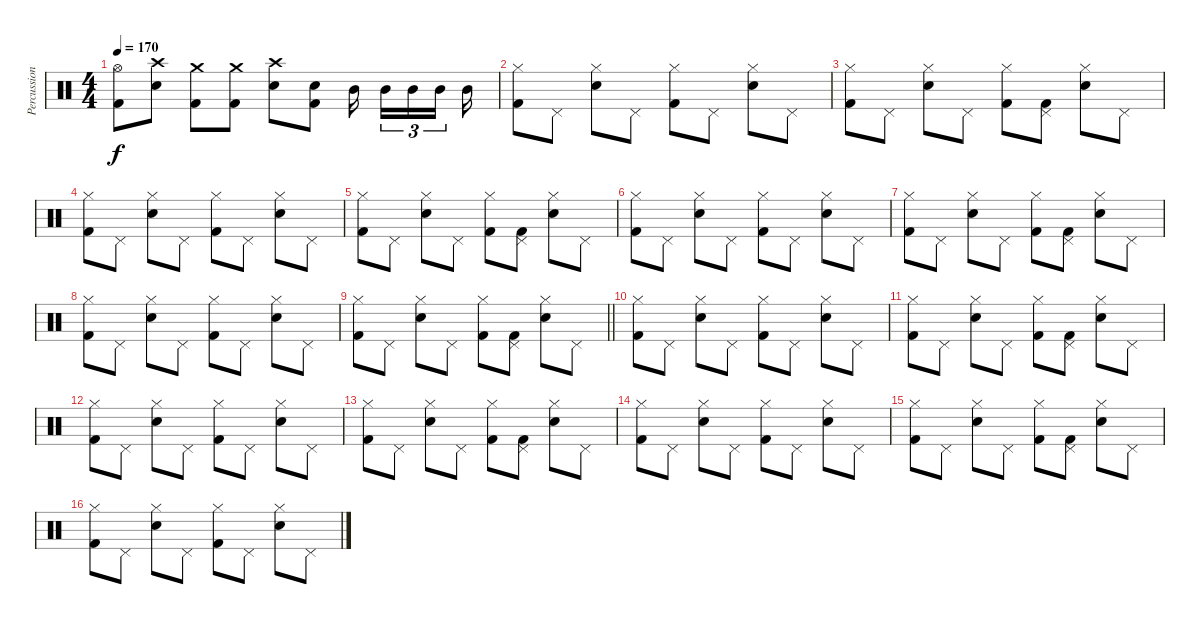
\track ("Percussion" "Percussion") {instrument percussion}
\staff {score}
\articulation defaults
\ts (4 4)
\tempo 170
\clef neutral
\ks c
("Hi-Hat (open)" "Kick (hit) 2").8{dy f} ("Crash high (hit)" "Snare (hit) 2").8 ("Crash medium (hit)" "Kick (hit) 2").8 ("Crash medium (hit)" "Kick (hit) 2").8 ("Crash high (hit)" "Snare (hit) 2").8 ("Snare (hit) 2" "Kick (hit) 2").8 "Mid Tom (hit)".16{beam splitsecondary} "Mid Tom (hit)".16{tu (3 2)} "Mid Tom (hit)".16{tu (3 2)} "Mid Tom (hit)".16{tu (3 2) beam splitsecondary} "Mid Tom (hit)".16 |
("Hi-Hat (closed)" "Kick (hit) 2").8 "Pedal Hi-Hat (hit)".8 ("Hi-Hat (closed)" "Snare (hit) 2").8 "Pedal Hi-Hat (hit)".8 ("Hi-Hat (closed)" "Kick (hit) 2").8 "Pedal Hi-Hat (hit)".8 ("Hi-Hat (closed)" "Snare (hit) 2").8 "Pedal Hi-Hat (hit)".8 |
("Hi-Hat (closed)" "Kick (hit) 2").8 "Pedal Hi-Hat (hit)".8 ("Hi-Hat (closed)" "Snare (hit) 2").8 "Pedal Hi-Hat (hit)".8 ("Hi-Hat (closed)" "Kick (hit) 2").8 ("Pedal Hi-Hat (hit)" "Kick (hit) 2").8 ("Hi-Hat (closed)" "Snare (hit) 2").8 "Pedal Hi-Hat (hit)".8 |
("Hi-Hat (closed)" "Kick (hit) 2").8 "Pedal Hi-Hat (hit)".8 ("Hi-Hat (closed)" "Snare (hit) 2").8 "Pedal Hi-Hat (hit)".8 ("Hi-Hat (closed)" "Kick (hit) 2").8 "Pedal Hi-Hat (hit)".8 ("Hi-Hat (closed)" "Snare (hit) 2").8 "Pedal Hi-Hat (hit)".8 |
("Hi-Hat (closed)" "Kick (hit) 2").8 "Pedal Hi-Hat (hit)".8 ("Hi-Hat (closed)" "Snare (hit) 2").8 "Pedal Hi-Hat (hit)".8 ("Hi-Hat (closed)" "Kick (hit) 2").8 ("Pedal Hi-Hat (hit)" "Kick (hit) 2").8 ("Hi-Hat (closed)" "Snare (hit) 2").8 "Pedal Hi-Hat (hit)".8 |
("Hi-Hat (closed)" "Kick (hit) 2").8 "Pedal Hi-Hat (hit)".8 ("Hi-Hat (closed)" "Snare (hit) 2").8 "Pedal Hi-Hat (hit)".8 ("Hi-Hat (closed)" "Kick (hit) 2").8 "Pedal Hi-Hat (hit)".8 ("Hi-Hat (closed)" "Snare (hit) 2").8 "Pedal Hi-Hat (hit)".8 |
("Hi-Hat (closed)" "Kick (hit) 2").8 "Pedal Hi-Hat (hit)".8 ("Hi-Hat (closed)" "Snare (hit) 2").8 "Pedal Hi-Hat (hit)".8 ("Hi-Hat (closed)" "Kick (hit) 2").8 ("Pedal Hi-Hat (hit)" "Kick (hit) 2").8 ("Hi-Hat (closed)" "Snare (hit) 2").8 "Pedal Hi-Hat (hit)".8 |
("Hi-Hat (closed)" "Kick (hit) 2").8 "Pedal Hi-Hat (hit)".8 ("Hi-Hat (closed)" "Snare (hit) 2").8 "Pedal Hi-Hat (hit)".8 ("Hi-Hat (closed)" "Kick (hit) 2").8 "Pedal Hi-Hat (hit)".8 ("Hi-Hat (closed)" "Snare (hit) 2").8 "Pedal Hi-Hat (hit)".8 |
\barLineRight lightlight
("Hi-Hat (closed)" "Kick (hit) 2").8 "Pedal Hi-Hat (hit)".8 ("Hi-Hat (closed)" "Snare (hit) 2").8 "Pedal Hi-Hat (hit)".8 ("Hi-Hat (closed)" "Kick (hit) 2").8 ("Pedal Hi-Hat (hit)" "Kick (hit) 2").8 ("Hi-Hat (closed)" "Snare (hit) 2").8 "Pedal Hi-Hat (hit)".8 |
("Hi-Hat (closed)" "Kick (hit) 2").8 "Pedal Hi-Hat (hit)".8 ("Hi-Hat (closed)" "Snare (hit) 2").8 "Pedal Hi-Hat (hit)".8 ("Hi-Hat (closed)" "Kick (hit) 2").8 "Pedal Hi-Hat (hit)".8 ("Hi-Hat (closed)" "Snare (hit) 2").8 "Pedal Hi-Hat (hit)".8 |
("Hi-Hat (closed)" "Kick (hit) 2").8 "Pedal Hi-Hat (hit)".8 ("Hi-Hat (closed)" "Snare (hit) 2").8 "Pedal Hi-Hat (hit)".8 ("Hi-Hat (closed)" "Kick (hit) 2").8 ("Pedal Hi-Hat (hit)" "Kick (hit) 2").8 ("Hi-Hat (closed)" "Snare (hit) 2").8 "Pedal Hi-Hat (hit)".8 |
("Hi-Hat (closed)" "Kick (hit) 2").8 "Pedal Hi-Hat (hit)".8 ("Hi-Hat (closed)" "Snare (hit) 2").8 "Pedal Hi-Hat (hit)".8 ("Hi-Hat (closed)" "Kick (hit) 2").8 "Pedal Hi-Hat (hit)".8 ("Hi-Hat (closed)" "Snare (hit) 2").8 "Pedal Hi-Hat (hit)".8 |
("Hi-Hat (closed)" "Kick (hit) 2").8 "Pedal Hi-Hat (hit)".8 ("Hi-Hat (closed)" "Snare (hit) 2").8 "Pedal Hi-Hat (hit)".8 ("Hi-Hat (closed)" "Kick (hit) 2").8 ("Pedal Hi-Hat (hit)" "Kick (hit) 2").8 ("Hi-Hat (closed)" "Snare (hit) 2").8 "Pedal Hi-Hat (hit)".8 |
("Hi-Hat (closed)" "Kick (hit) 2").8 "Pedal Hi-Hat (hit)".8 ("Hi-Hat (closed)" "Snare (hit) 2").8 "Pedal Hi-Hat (hit)".8 ("Hi-Hat (closed)" "Kick (hit) 2").8 "Pedal Hi-Hat (hit)".8 ("Hi-Hat (closed)" "Snare (hit) 2").8 "Pedal Hi-Hat (hit)".8 |
("Hi-Hat (closed)" "Kick (hit) 2").8 "Pedal Hi-Hat (hit)".8 ("Hi-Hat (closed)" "Snare (hit) 2").8 "Pedal Hi-Hat (hit)".8 ("Hi-Hat (closed)" "Kick (hit) 2").8 ("Pedal Hi-Hat (hit)" "Kick (hit) 2").8 ("Hi-Hat (closed)" "Snare (hit) 2").8 "Pedal Hi-Hat (hit)".8 |
("Hi-Hat (closed)" "Kick (hit) 2").8 "Pedal Hi-Hat (hit)".8 ("Hi-Hat (closed)" "Snare (hit) 2").8 "Pedal Hi-Hat (hit)".8 ("Hi-Hat (closed)" "Kick (hit) 2").8 "Pedal Hi-Hat (hit)".8 ("Hi-Hat (closed)" "Snare (hit) 2").8 "Pedal Hi-Hat (hit)".8
